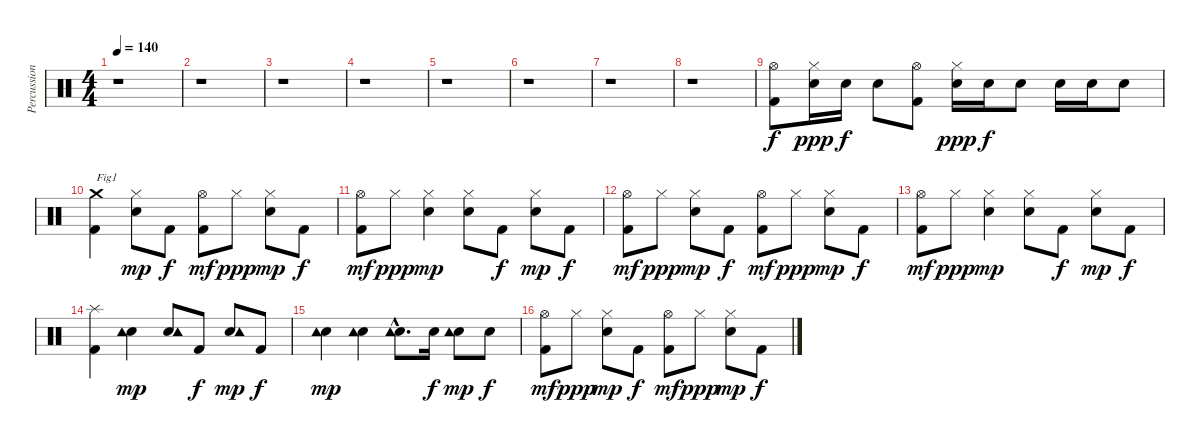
\track ("Percussions" "Percussion") {instrument percussion}
\staff {score}
\articulation defaults
\ts (4 4)
\tempo 140
\clef neutral
\ks c
r.1{dy f} |
r.1 |
r.1 |
r.1 |
r.1 |
r.1 |
r.1 |
r.1 |
("Kick (hit) 2" "Hi-Hat (open)").8 ("Electric Snare (hit)" "Hi-Hat (closed)").16{dy ppp} "Electric Snare (hit)".16{dy f} "Electric Snare (hit)".8 ("Kick (hit) 2" "Hi-Hat (open)").8 ("Electric Snare (hit)" "Hi-Hat (closed)").16{dy ppp} "Electric Snare (hit)".16{dy f} "Electric Snare (hit)".8 "Electric Snare (hit)".16 "Electric Snare (hit)".16 "Electric Snare (hit)".8 |
("Kick (hit) 2" "Crash medium (hit)").4{txt "Fig1"} ("Electric Snare (hit)" "Hi-Hat (closed)").8{dy mp} "Kick (hit) 2".8{dy f} ("Kick (hit) 2" "Hi-Hat (open)").8{dy mf} "Hi-Hat (closed)".8{dy ppp} ("Electric Snare (hit)" "Hi-Hat (closed)").8{dy mp} "Kick (hit) 2".8{dy f} |
("Kick (hit) 2" "Hi-Hat (open)").8{dy mf} "Hi-Hat (closed)".8{dy ppp} ("Electric Snare (hit)" "Hi-Hat (closed)").4{dy mp} ("Electric Snare (hit)" "Hi-Hat (closed)").8 "Kick (hit) 2".8{dy f} ("Electric Snare (hit)" "Hi-Hat (closed)").8{dy mp} "Kick (hit) 2".8{dy f} |
("Kick (hit) 2" "Hi-Hat (open)").8{dy mf} "Hi-Hat (closed)".8{dy ppp} ("Electric Snare (hit)" "Hi-Hat (closed)").8{dy mp} "Kick (hit) 2".8{dy f} ("Kick (hit) 2" "Hi-Hat (open)").8{dy mf} "Hi-Hat (closed)".8{dy ppp} ("Electric Snare (hit)" "Hi-Hat (closed)").8{dy mp} "Kick (hit) 2".8{dy f} |
("Kick (hit) 2" "Hi-Hat (open)").8{dy mf} "Hi-Hat (closed)".8{dy ppp} ("Electric Snare (hit)" "Hi-Hat (closed)").4{dy mp} ("Electric Snare (hit)" "Hi-Hat (closed)").8 "Kick (hit) 2".8{dy f} ("Electric Snare (hit)" "Hi-Hat (closed)").8{dy mp} "Kick (hit) 2".8{dy f} |
("Kick (hit) 2" "Splash (hit)").4 ("Electric Snare (hit)" "Tambourine (hit)").4{dy mp} ("Electric Snare (hit)" "Tambourine (hit)").8 "Kick (hit) 2".8{dy f} ("Electric Snare (hit)" "Tambourine (hit)").8{dy mp} "Kick (hit) 2".8{dy f} |
("Electric Snare (hit)" "Tambourine (hit)").4{dy mp} ("Electric Snare (hit)" "Tambourine (hit)").4 ("Electric Snare (hit)"{hac} "Tambourine (hit)"{hac}).8{d} "Electric Snare (hit)".16{dy f} ("Electric Snare (hit)" "Tambourine (hit)").8{dy mp} "Electric Snare (hit)".8{dy f} |
("Kick (hit) 2" "Hi-Hat (open)").8{dy mf} "Hi-Hat (closed)".8{dy ppp} ("Electric Snare (hit)" "Hi-Hat (closed)").8{dy mp} "Kick (hit) 2".8{dy f} ("Kick (hit) 2" "Hi-Hat (open)").8{dy mf} "Hi-Hat (closed)".8{dy ppp} ("Electric Snare (hit)" "Hi-Hat (closed)").8{dy mp} "Kick (hit) 2".8{dy f}
